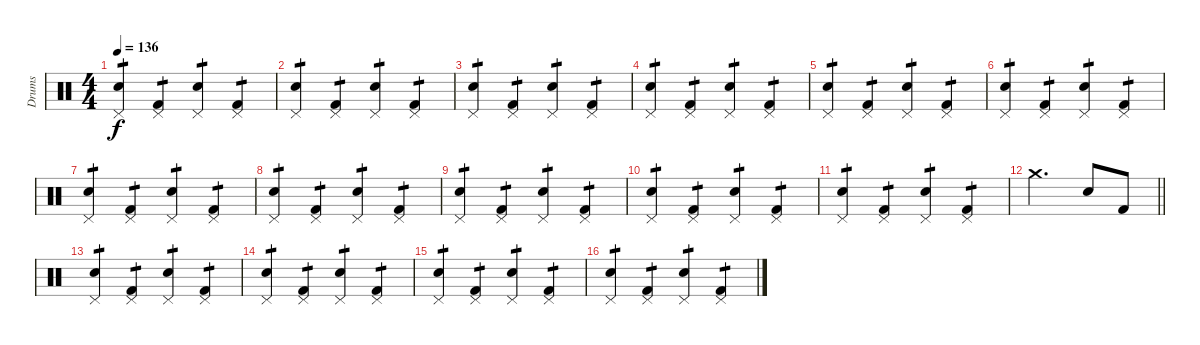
\track ("Drums" "Drums") {instrument percussion}
\staff {score}
\articulation defaults
\ts (4 4)
\tempo 136
\clef neutral
\ks c
("Snare (hit) 2" "Pedal Hi-Hat (hit)").4{tp 1 dy f} ("Kick (hit) 2" "Pedal Hi-Hat (hit)").4{tp 1} ("Snare (hit) 2" "Pedal Hi-Hat (hit)").4{tp 1} ("Kick (hit) 2" "Pedal Hi-Hat (hit)").4{tp 1} |
("Snare (hit) 2" "Pedal Hi-Hat (hit)").4{tp 1} ("Kick (hit) 2" "Pedal Hi-Hat (hit)").4{tp 1} ("Snare (hit) 2" "Pedal Hi-Hat (hit)").4{tp 1} ("Kick (hit) 2" "Pedal Hi-Hat (hit)").4{tp 1} |
("Snare (hit) 2" "Pedal Hi-Hat (hit)").4{tp 1} ("Kick (hit) 2" "Pedal Hi-Hat (hit)").4{tp 1} ("Snare (hit) 2" "Pedal Hi-Hat (hit)").4{tp 1} ("Kick (hit) 2" "Pedal Hi-Hat (hit)").4{tp 1} |
("Snare (hit) 2" "Pedal Hi-Hat (hit)").4{tp 1} ("Kick (hit) 2" "Pedal Hi-Hat (hit)").4{tp 1} ("Snare (hit) 2" "Pedal Hi-Hat (hit)").4{tp 1} ("Kick (hit) 2" "Pedal Hi-Hat (hit)").4{tp 1} |
("Snare (hit) 2" "Pedal Hi-Hat (hit)").4{tp 1} ("Kick (hit) 2" "Pedal Hi-Hat (hit)").4{tp 1} ("Snare (hit) 2" "Pedal Hi-Hat (hit)").4{tp 1} ("Kick (hit) 2" "Pedal Hi-Hat (hit)").4{tp 1} |
("Snare (hit) 2" "Pedal Hi-Hat (hit)").4{tp 1} ("Kick (hit) 2" "Pedal Hi-Hat (hit)").4{tp 1} ("Snare (hit) 2" "Pedal Hi-Hat (hit)").4{tp 1} ("Kick (hit) 2" "Pedal Hi-Hat (hit)").4{tp 1} |
("Snare (hit) 2" "Pedal Hi-Hat (hit)").4{tp 1} ("Kick (hit) 2" "Pedal Hi-Hat (hit)").4{tp 1} ("Snare (hit) 2" "Pedal Hi-Hat (hit)").4{tp 1} ("Kick (hit) 2" "Pedal Hi-Hat (hit)").4{tp 1} |
("Snare (hit) 2" "Pedal Hi-Hat (hit)").4{tp 1} ("Kick (hit) 2" "Pedal Hi-Hat (hit)").4{tp 1} ("Snare (hit) 2" "Pedal Hi-Hat (hit)").4{tp 1} ("Kick (hit) 2" "Pedal Hi-Hat (hit)").4{tp 1} |
("Snare (hit) 2" "Pedal Hi-Hat (hit)").4{tp 1} ("Kick (hit) 2" "Pedal Hi-Hat (hit)").4{tp 1} ("Snare (hit) 2" "Pedal Hi-Hat (hit)").4{tp 1} ("Kick (hit) 2" "Pedal Hi-Hat (hit)").4{tp 1} |
("Snare (hit) 2" "Pedal Hi-Hat (hit)").4{tp 1} ("Kick (hit) 2" "Pedal Hi-Hat (hit)").4{tp 1} ("Snare (hit) 2" "Pedal Hi-Hat (hit)").4{tp 1} ("Kick (hit) 2" "Pedal Hi-Hat (hit)").4{tp 1} |
("Snare (hit) 2" "Pedal Hi-Hat (hit)").4{tp 1} ("Kick (hit) 2" "Pedal Hi-Hat (hit)").4{tp 1} ("Snare (hit) 2" "Pedal Hi-Hat (hit)").4{tp 1} ("Kick (hit) 2" "Pedal Hi-Hat (hit)").4{tp 1} |
\barLineRight lightlight "Crash medium (hit)".2{d} "Snare (hit) 2".8 "Kick (hit) 2".8
|
("Snare (hit) 2" "Pedal Hi-Hat (hit)").4{tp 1} ("Kick (hit) 2" "Pedal Hi-Hat (hit)").4{tp 1} ("Snare (hit) 2" "Pedal Hi-Hat (hit)").4{tp 1} ("Kick (hit) 2" "Pedal Hi-Hat (hit)").4{tp 1} |
("Snare (hit) 2" "Pedal Hi-Hat (hit)").4{tp 1} ("Kick (hit) 2" "Pedal Hi-Hat (hit)").4{tp 1} ("Snare (hit) 2" "Pedal Hi-Hat (hit)").4{tp 1} ("Kick (hit) 2" "Pedal Hi-Hat (hit)").4{tp 1} |
("Snare (hit) 2" "Pedal Hi-Hat (hit)").4{tp 1} ("Kick (hit) 2" "Pedal Hi-Hat (hit)").4{tp 1} ("Snare (hit) 2" "Pedal Hi-Hat (hit)").4{tp 1} ("Kick (hit) 2" "Pedal Hi-Hat (hit)").4{tp 1} |
("Snare (hit) 2" "Pedal Hi-Hat (hit)").4{tp 1} ("Kick (hit) 2" "Pedal Hi-Hat (hit)").4{tp 1} ("Snare (hit) 2" "Pedal Hi-Hat (hit)").4{tp 1} ("Kick (hit) 2" "Pedal Hi-Hat (hit)").4{tp 1}
